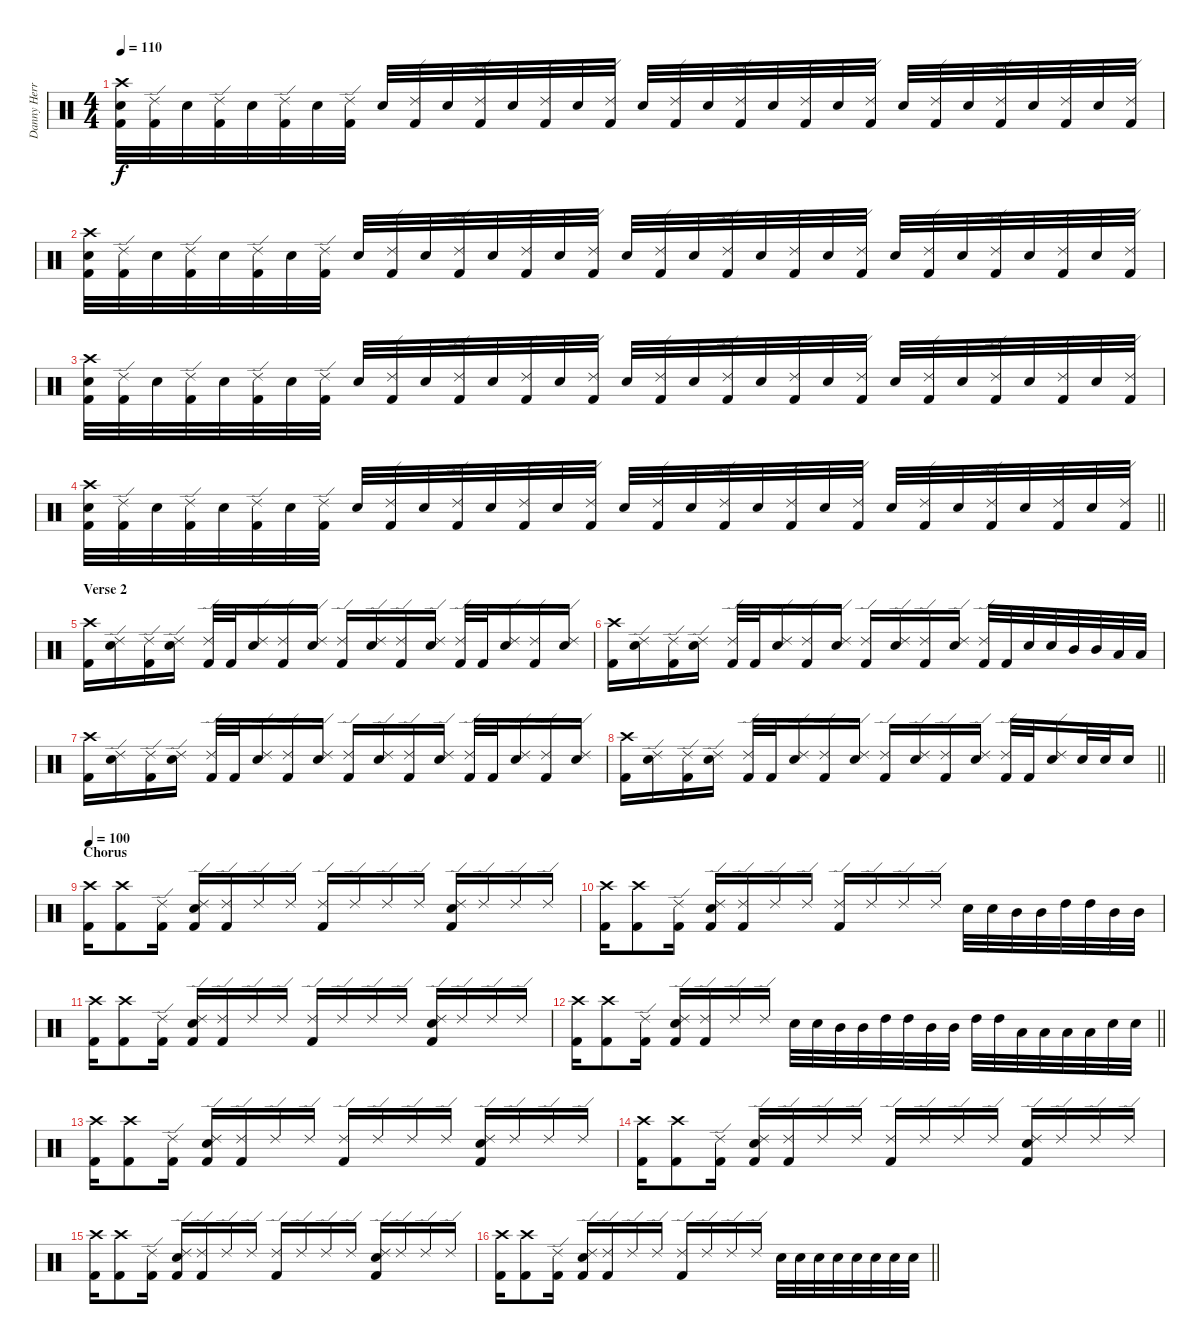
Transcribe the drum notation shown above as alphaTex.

\track ("Danny Herrera" "Danny Herr") {instrument percussion}
\staff {score}
\articulation defaults
\ts (4 4)
\tempo 110
\clef neutral
\ks c
("Kick (hit) 2" "Snare (hit) 2" "Crash high (hit)").32{dy f} ("Kick (hit) 2" "Ride (edge) 2").32 "Snare (hit) 2".32 ("Kick (hit) 2" "Ride (edge) 2").32 "Snare (hit) 2".32 ("Kick (hit) 2" "Ride (edge) 2").32 "Snare (hit) 2".32 ("Kick (hit) 2" "Ride (edge) 2").32 "Snare (hit) 2".32 ("Kick (hit) 2" "Ride (edge) 2").32 "Snare (hit) 2".32 ("Kick (hit) 2" "Ride (edge) 2").32 "Snare (hit) 2".32 ("Kick (hit) 2" "Ride (edge) 2").32 "Snare (hit) 2".32 ("Kick (hit) 2" "Ride (edge) 2").32 "Snare (hit) 2".32 ("Kick (hit) 2" "Ride (edge) 2").32 "Snare (hit) 2".32 ("Kick (hit) 2" "Ride (edge) 2").32 "Snare (hit) 2".32 ("Kick (hit) 2" "Ride (edge) 2").32 "Snare (hit) 2".32 ("Kick (hit) 2" "Ride (edge) 2").32 "Snare (hit) 2".32 ("Kick (hit) 2" "Ride (edge) 2").32 "Snare (hit) 2".32 ("Kick (hit) 2" "Ride (edge) 2").32 "Snare (hit) 2".32 ("Kick (hit) 2" "Ride (edge) 2").32 "Snare (hit) 2".32 ("Kick (hit) 2" "Ride (edge) 2").32 |
("Kick (hit) 2" "Snare (hit) 2" "Crash high (hit)").32 ("Kick (hit) 2" "Ride (edge) 2").32 "Snare (hit) 2".32 ("Kick (hit) 2" "Ride (edge) 2").32 "Snare (hit) 2".32 ("Kick (hit) 2" "Ride (edge) 2").32 "Snare (hit) 2".32 ("Kick (hit) 2" "Ride (edge) 2").32 "Snare (hit) 2".32 ("Kick (hit) 2" "Ride (edge) 2").32 "Snare (hit) 2".32 ("Kick (hit) 2" "Ride (edge) 2").32 "Snare (hit) 2".32 ("Kick (hit) 2" "Ride (edge) 2").32 "Snare (hit) 2".32 ("Kick (hit) 2" "Ride (edge) 2").32 "Snare (hit) 2".32 ("Kick (hit) 2" "Ride (edge) 2").32 "Snare (hit) 2".32 ("Kick (hit) 2" "Ride (edge) 2").32 "Snare (hit) 2".32 ("Kick (hit) 2" "Ride (edge) 2").32 "Snare (hit) 2".32 ("Kick (hit) 2" "Ride (edge) 2").32 "Snare (hit) 2".32 ("Kick (hit) 2" "Ride (edge) 2").32 "Snare (hit) 2".32 ("Kick (hit) 2" "Ride (edge) 2").32 "Snare (hit) 2".32 ("Kick (hit) 2" "Ride (edge) 2").32 "Snare (hit) 2".32 ("Kick (hit) 2" "Ride (edge) 2").32 |
("Kick (hit) 2" "Snare (hit) 2" "Crash high (hit)").32 ("Kick (hit) 2" "Ride (edge) 2").32 "Snare (hit) 2".32 ("Kick (hit) 2" "Ride (edge) 2").32 "Snare (hit) 2".32 ("Kick (hit) 2" "Ride (edge) 2").32 "Snare (hit) 2".32 ("Kick (hit) 2" "Ride (edge) 2").32 "Snare (hit) 2".32 ("Kick (hit) 2" "Ride (edge) 2").32 "Snare (hit) 2".32 ("Kick (hit) 2" "Ride (edge) 2").32 "Snare (hit) 2".32 ("Kick (hit) 2" "Ride (edge) 2").32 "Snare (hit) 2".32 ("Kick (hit) 2" "Ride (edge) 2").32 "Snare (hit) 2".32 ("Kick (hit) 2" "Ride (edge) 2").32 "Snare (hit) 2".32 ("Kick (hit) 2" "Ride (edge) 2").32 "Snare (hit) 2".32 ("Kick (hit) 2" "Ride (edge) 2").32 "Snare (hit) 2".32 ("Kick (hit) 2" "Ride (edge) 2").32 "Snare (hit) 2".32 ("Kick (hit) 2" "Ride (edge) 2").32 "Snare (hit) 2".32 ("Kick (hit) 2" "Ride (edge) 2").32 "Snare (hit) 2".32 ("Kick (hit) 2" "Ride (edge) 2").32 "Snare (hit) 2".32 ("Kick (hit) 2" "Ride (edge) 2").32 |
\barLineRight lightlight
("Kick (hit) 2" "Snare (hit) 2" "Crash high (hit)").32 ("Kick (hit) 2" "Ride (edge) 2").32 "Snare (hit) 2".32 ("Kick (hit) 2" "Ride (edge) 2").32 "Snare (hit) 2".32 ("Kick (hit) 2" "Ride (edge) 2").32 "Snare (hit) 2".32 ("Kick (hit) 2" "Ride (edge) 2").32 "Snare (hit) 2".32 ("Kick (hit) 2" "Ride (edge) 2").32 "Snare (hit) 2".32 ("Kick (hit) 2" "Ride (edge) 2").32 "Snare (hit) 2".32 ("Kick (hit) 2" "Ride (edge) 2").32 "Snare (hit) 2".32 ("Kick (hit) 2" "Ride (edge) 2").32 "Snare (hit) 2".32 ("Kick (hit) 2" "Ride (edge) 2").32 "Snare (hit) 2".32 ("Kick (hit) 2" "Ride (edge) 2").32 "Snare (hit) 2".32 ("Kick (hit) 2" "Ride (edge) 2").32 "Snare (hit) 2".32 ("Kick (hit) 2" "Ride (edge) 2").32 "Snare (hit) 2".32 ("Kick (hit) 2" "Ride (edge) 2").32 "Snare (hit) 2".32 ("Kick (hit) 2" "Ride (edge) 2").32 "Snare (hit) 2".32 ("Kick (hit) 2" "Ride (edge) 2").32 "Snare (hit) 2".32 ("Kick (hit) 2" "Ride (edge) 2").32 |
\section ("" "Verse 2")
("Kick (hit) 2" "Crash high (hit)").16 ("Snare (hit) 2" "Ride (edge) 2").16 ("Kick (hit) 2" "Ride (edge) 2").16 ("Snare (hit) 2" "Ride (edge) 2").16 ("Kick (hit) 2" "Ride (edge) 2").32 "Kick (hit) 2".32 ("Snare (hit) 2" "Ride (edge) 2").16 ("Kick (hit) 2" "Ride (edge) 2").16 ("Snare (hit) 2" "Ride (edge) 2").16 ("Kick (hit) 2" "Ride (edge) 2").16 ("Snare (hit) 2" "Ride (edge) 2").16 ("Kick (hit) 2" "Ride (edge) 2").16 ("Snare (hit) 2" "Ride (edge) 2").16 ("Kick (hit) 2" "Ride (edge) 2").32 "Kick (hit) 2".32 ("Snare (hit) 2" "Ride (edge) 2").16 ("Kick (hit) 2" "Ride (edge) 2").16 ("Snare (hit) 2" "Ride (edge) 2").16 |
("Kick (hit) 2" "Crash high (hit)").16 ("Snare (hit) 2" "Ride (edge) 2").16 ("Kick (hit) 2" "Ride (edge) 2").16 ("Snare (hit) 2" "Ride (edge) 2").16 ("Kick (hit) 2" "Ride (edge) 2").32 "Kick (hit) 2".32 ("Snare (hit) 2" "Ride (edge) 2").16 ("Kick (hit) 2" "Ride (edge) 2").16 ("Snare (hit) 2" "Ride (edge) 2").16 ("Kick (hit) 2" "Ride (edge) 2").16 ("Snare (hit) 2" "Ride (edge) 2").16 ("Kick (hit) 2" "Ride (edge) 2").16 ("Snare (hit) 2" "Ride (edge) 2").16 ("Kick (hit) 2" "Ride (edge) 2").32 "Kick (hit) 2".32 "Snare (hit) 2".32 "Snare (hit) 2".32 "Mid Tom (hit)".32 "Mid Tom (hit)".32 "Low Tom (hit)".32 "Low Tom (hit)".32 |
("Kick (hit) 2" "Crash high (hit)").16 ("Snare (hit) 2" "Ride (edge) 2").16 ("Kick (hit) 2" "Ride (edge) 2").16 ("Snare (hit) 2" "Ride (edge) 2").16 ("Kick (hit) 2" "Ride (edge) 2").32 "Kick (hit) 2".32 ("Snare (hit) 2" "Ride (edge) 2").16 ("Kick (hit) 2" "Ride (edge) 2").16 ("Snare (hit) 2" "Ride (edge) 2").16 ("Kick (hit) 2" "Ride (edge) 2").16 ("Snare (hit) 2" "Ride (edge) 2").16 ("Kick (hit) 2" "Ride (edge) 2").16 ("Snare (hit) 2" "Ride (edge) 2").16 ("Kick (hit) 2" "Ride (edge) 2").32 "Kick (hit) 2".32 ("Snare (hit) 2" "Ride (edge) 2").16 ("Kick (hit) 2" "Ride (edge) 2").16 ("Snare (hit) 2" "Ride (edge) 2").16 |
\barLineRight lightlight
("Kick (hit) 2" "Crash high (hit)").16 ("Snare (hit) 2" "Ride (edge) 2").16 ("Kick (hit) 2" "Ride (edge) 2").16 ("Snare (hit) 2" "Ride (edge) 2").16 ("Kick (hit) 2" "Ride (edge) 2").32 "Kick (hit) 2".32 ("Snare (hit) 2" "Ride (edge) 2").16 ("Kick (hit) 2" "Ride (edge) 2").16 ("Snare (hit) 2" "Ride (edge) 2").16 ("Kick (hit) 2" "Ride (edge) 2").16 ("Snare (hit) 2" "Ride (edge) 2").16 ("Kick (hit) 2" "Ride (edge) 2").16 ("Snare (hit) 2" "Ride (edge) 2").16 ("Kick (hit) 2" "Ride (edge) 2").32 "Kick (hit) 2".32 ("Snare (hit) 2" "Ride (edge) 2").16 "Snare (hit) 2".32 "Snare (hit) 2".32 "Snare (hit) 2".16 |
\section ("" "Chorus")
\tempo 100
("Kick (hit) 2" "Crash high (hit)").16 ("Kick (hit) 2" "Crash high (hit)").8 ("Kick (hit) 2" "Ride (edge) 2").16 ("Kick (hit) 2" "Snare (hit) 2" "Ride (edge) 2").16 ("Kick (hit) 2" "Ride (edge) 2").16 "Ride (edge) 2".16 "Ride (edge) 2".16 ("Kick (hit) 2" "Ride (edge) 2").16 "Ride (edge) 2".16 "Ride (edge) 2".16 "Ride (edge) 2".16 ("Kick (hit) 2" "Snare (hit) 2" "Ride (edge) 2").16 "Ride (edge) 2".16 "Ride (edge) 2".16 "Ride (edge) 2".16 |
("Kick (hit) 2" "Crash high (hit)").16 ("Kick (hit) 2" "Crash high (hit)").8 ("Kick (hit) 2" "Ride (edge) 2").16 ("Kick (hit) 2" "Snare (hit) 2" "Ride (edge) 2").16 ("Kick (hit) 2" "Ride (edge) 2").16 "Ride (edge) 2".16 "Ride (edge) 2".16 ("Kick (hit) 2" "Ride (edge) 2").16 "Ride (edge) 2".16 "Ride (edge) 2".16 "Ride (edge) 2".16 "Snare (hit) 2".32 "Snare (hit) 2".32 "Mid Tom (hit)".32 "Mid Tom (hit)".32 "High Tom (hit)".32 "High Tom (hit)".32 "Mid Tom (hit)".32 "Mid Tom (hit)".32 |
("Kick (hit) 2" "Crash high (hit)").16 ("Kick (hit) 2" "Crash high (hit)").8 ("Kick (hit) 2" "Ride (edge) 2").16 ("Kick (hit) 2" "Snare (hit) 2" "Ride (edge) 2").16 ("Kick (hit) 2" "Ride (edge) 2").16 "Ride (edge) 2".16 "Ride (edge) 2".16 ("Kick (hit) 2" "Ride (edge) 2").16 "Ride (edge) 2".16 "Ride (edge) 2".16 "Ride (edge) 2".16 ("Kick (hit) 2" "Snare (hit) 2" "Ride (edge) 2").16 "Ride (edge) 2".16 "Ride (edge) 2".16 "Ride (edge) 2".16 |
\barLineRight lightlight
("Kick (hit) 2" "Crash high (hit)").16 ("Kick (hit) 2" "Crash high (hit)").8 ("Kick (hit) 2" "Ride (edge) 2").16 ("Kick (hit) 2" "Snare (hit) 2" "Ride (edge) 2").16 ("Kick (hit) 2" "Ride (edge) 2").16 "Ride (edge) 2".16 "Ride (edge) 2".16 "Snare (hit) 2".32 "Snare (hit) 2".32 "Mid Tom (hit)".32 "Mid Tom (hit)".32 "High Tom (hit)".32 "High Tom (hit)".32 "Mid Tom (hit)".32 "Mid Tom (hit)".32 "High Tom (hit)".32 "High Tom (hit)".32 "Low Tom (hit)".32 "Low Tom (hit)".32 "Low Tom (hit)".32 "Low Tom (hit)".32 "Snare (hit) 2".32 "Snare (hit) 2".32 |
("Kick (hit) 2" "Crash high (hit)").16 ("Kick (hit) 2" "Crash high (hit)").8 ("Kick (hit) 2" "Ride (edge) 2").16 ("Kick (hit) 2" "Snare (hit) 2" "Ride (edge) 2").16 ("Kick (hit) 2" "Ride (edge) 2").16 "Ride (edge) 2".16 "Ride (edge) 2".16 ("Kick (hit) 2" "Ride (edge) 2").16 "Ride (edge) 2".16 "Ride (edge) 2".16 "Ride (edge) 2".16 ("Kick (hit) 2" "Snare (hit) 2" "Ride (edge) 2").16 "Ride (edge) 2".16 "Ride (edge) 2".16 "Ride (edge) 2".16 |
("Kick (hit) 2" "Crash high (hit)").16 ("Kick (hit) 2" "Crash high (hit)").8 ("Kick (hit) 2" "Ride (edge) 2").16 ("Kick (hit) 2" "Snare (hit) 2" "Ride (edge) 2").16 ("Kick (hit) 2" "Ride (edge) 2").16 "Ride (edge) 2".16 "Ride (edge) 2".16 ("Kick (hit) 2" "Ride (edge) 2").16 "Ride (edge) 2".16 "Ride (edge) 2".16 "Ride (edge) 2".16 ("Kick (hit) 2" "Snare (hit) 2" "Ride (edge) 2").16 "Ride (edge) 2".16 "Ride (edge) 2".16 "Ride (edge) 2".16 |
("Kick (hit) 2" "Crash high (hit)").16 ("Kick (hit) 2" "Crash high (hit)").8 ("Kick (hit) 2" "Ride (edge) 2").16 ("Kick (hit) 2" "Snare (hit) 2" "Ride (edge) 2").16 ("Kick (hit) 2" "Ride (edge) 2").16 "Ride (edge) 2".16 "Ride (edge) 2".16 ("Kick (hit) 2" "Ride (edge) 2").16 "Ride (edge) 2".16 "Ride (edge) 2".16 "Ride (edge) 2".16 ("Kick (hit) 2" "Snare (hit) 2" "Ride (edge) 2").16 "Ride (edge) 2".16 "Ride (edge) 2".16 "Ride (edge) 2".16 |
\barLineRight lightlight
("Kick (hit) 2" "Crash high (hit)").16 ("Kick (hit) 2" "Crash high (hit)").8 ("Kick (hit) 2" "Ride (edge) 2").16 ("Kick (hit) 2" "Snare (hit) 2" "Ride (edge) 2").16 ("Kick (hit) 2" "Ride (edge) 2").16 "Ride (edge) 2".16 "Ride (edge) 2".16 ("Kick (hit) 2" "Ride (edge) 2").16 "Ride (edge) 2".16 "Ride (edge) 2".16 "Ride (edge) 2".16 "Snare (hit) 2".32 "Snare (hit) 2".32 "Snare (hit) 2".32 "Snare (hit) 2".32 "Snare (hit) 2".32 "Snare (hit) 2".32 "Snare (hit) 2".32 "Snare (hit) 2".32
